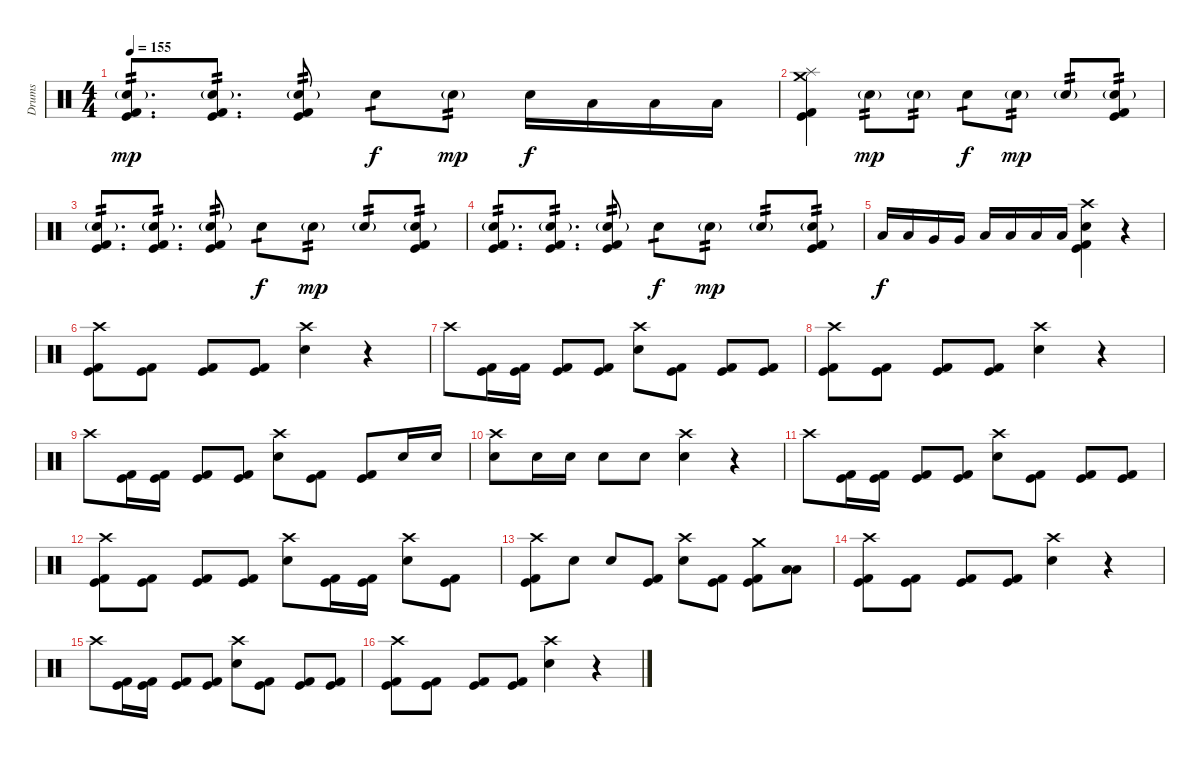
\track ("Drums" "Drums") {instrument percussion}
\staff {score}
\articulation defaults
\ts (4 4)
\tempo 155
\clef neutral
\ks c
("Electric Snare (hit)"{g} "Kick (hit)" "Kick (hit) 2").8{d tp 2 dy mp} ("Electric Snare (hit)"{g} "Kick (hit)" "Kick (hit) 2").8{d tp 2} ("Electric Snare (hit)"{g} "Kick (hit)" "Kick (hit) 2").8{tp 2} "Electric Snare (hit)".8{tp 1 dy f} "Electric Snare (hit)"{g}.8{tp 2 dy mp} "Electric Snare (hit)".16{dy f} "Low Tom (hit)".16 "Low Floor Tom (hit)".16 "Low Floor Tom (hit)".16 |
("Crash medium (hit)" "Splash (hit)" "Kick (hit)" "Kick (hit) 2").4 "Electric Snare (hit)"{g}.8{tp 2 dy mp} "Electric Snare (hit)"{g}.8{tp 2} "Electric Snare (hit)".8{tp 1 dy f} "Electric Snare (hit)"{g}.8{tp 2 dy mp} "Electric Snare (hit)"{g}.8{tp 2} ("Electric Snare (hit)"{g} "Kick (hit)" "Kick (hit) 2").8{tp 2} |
("Electric Snare (hit)"{g} "Kick (hit)" "Kick (hit) 2").8{d tp 2} ("Electric Snare (hit)"{g} "Kick (hit)" "Kick (hit) 2").8{d tp 2} ("Electric Snare (hit)"{g} "Kick (hit)" "Kick (hit) 2").8{tp 2} "Electric Snare (hit)".8{tp 1 dy f} "Electric Snare (hit)"{g}.8{tp 2 dy mp} "Electric Snare (hit)"{g}.8{tp 2} ("Electric Snare (hit)"{g} "Kick (hit)" "Kick (hit) 2").8{tp 2} |
("Electric Snare (hit)"{g} "Kick (hit)" "Kick (hit) 2").8{d tp 2} ("Electric Snare (hit)"{g} "Kick (hit)" "Kick (hit) 2").8{d tp 2} ("Electric Snare (hit)"{g} "Kick (hit)" "Kick (hit) 2").8{tp 2} "Electric Snare (hit)".8{tp 1 dy f} "Electric Snare (hit)"{g}.8{tp 2 dy mp} "Electric Snare (hit)"{g}.8{tp 2} ("Electric Snare (hit)"{g} "Kick (hit)" "Kick (hit) 2").8{tp 2} |
"Low Tom (hit)".16{dy f} "Low Tom (hit)".16 "Very Low Tom (hit)".16 "Very Low Tom (hit)".16 "Low Floor Tom (hit)".16 "Low Floor Tom (hit)".16 "Low Tom (hit)".16 "Low Tom (hit)".16 ("Crash high (hit)" "Electric Snare (hit)" "Kick (hit)" "Kick (hit) 2").4 r.4 |
("Crash high (hit)" "Kick (hit)" "Kick (hit) 2").8 ("Kick (hit)" "Kick (hit) 2").8 ("Kick (hit)" "Kick (hit) 2").8 ("Kick (hit)" "Kick (hit) 2").8 ("Crash high (hit)" "Electric Snare (hit)").4 r.4 |
"Crash high (hit)".8 ("Kick (hit)" "Kick (hit) 2").16 ("Kick (hit)" "Kick (hit) 2").16 ("Kick (hit)" "Kick (hit) 2").8 ("Kick (hit)" "Kick (hit) 2").8 ("Crash high (hit)" "Electric Snare (hit)").8 ("Kick (hit)" "Kick (hit) 2").8 ("Kick (hit)" "Kick (hit) 2").8 ("Kick (hit)" "Kick (hit) 2").8 |
("Crash high (hit)" "Kick (hit)" "Kick (hit) 2").8 ("Kick (hit)" "Kick (hit) 2").8 ("Kick (hit)" "Kick (hit) 2").8 ("Kick (hit)" "Kick (hit) 2").8 ("Crash high (hit)" "Electric Snare (hit)").4 r.4 |
"Crash high (hit)".8 ("Kick (hit)" "Kick (hit) 2").16 ("Kick (hit)" "Kick (hit) 2").16 ("Kick (hit)" "Kick (hit) 2").8 ("Kick (hit)" "Kick (hit) 2").8 ("Crash high (hit)" "Electric Snare (hit)").8 ("Kick (hit)" "Kick (hit) 2").8 ("Kick (hit)" "Kick (hit) 2").8 "Electric Snare (hit)".16 "Electric Snare (hit)".16 |
("Crash high (hit)" "Electric Snare (hit)").8 "Electric Snare (hit)".16 "Electric Snare (hit)".16 "Electric Snare (hit)".8 "Electric Snare (hit)".8 ("Crash high (hit)" "Electric Snare (hit)").4 r.4 |
"Crash high (hit)".8 ("Kick (hit)" "Kick (hit) 2").16 ("Kick (hit)" "Kick (hit) 2").16 ("Kick (hit)" "Kick (hit) 2").8 ("Kick (hit)" "Kick (hit) 2").8 ("Crash high (hit)" "Electric Snare (hit)").8 ("Kick (hit)" "Kick (hit) 2").8 ("Kick (hit)" "Kick (hit) 2").8 ("Kick (hit)" "Kick (hit) 2").8 |
("Crash high (hit)" "Kick (hit)" "Kick (hit) 2").8 ("Kick (hit)" "Kick (hit) 2").8 ("Kick (hit)" "Kick (hit) 2").8 ("Kick (hit)" "Kick (hit) 2").8 ("Crash high (hit)" "Electric Snare (hit)").8 ("Kick (hit)" "Kick (hit) 2").16 ("Kick (hit)" "Kick (hit) 2").16 ("Crash high (hit)" "Electric Snare (hit)").8 ("Kick (hit)" "Kick (hit) 2").8 |
("Crash high (hit)" "Kick (hit)" "Kick (hit) 2").8 "Electric Snare (hit)".8 "Electric Snare (hit)".8 ("Kick (hit)" "Kick (hit) 2").8 ("Crash high (hit)" "Electric Snare (hit)").8 ("Kick (hit)" "Kick (hit) 2").8 ("Crash medium (hit)" "Kick (hit)" "Kick (hit) 2").8 ("Low Floor Tom (hit)" "Low Tom (hit)").8 |
("Crash high (hit)" "Kick (hit)" "Kick (hit) 2").8 ("Kick (hit)" "Kick (hit) 2").8 ("Kick (hit)" "Kick (hit) 2").8 ("Kick (hit)" "Kick (hit) 2").8 ("Crash high (hit)" "Electric Snare (hit)").4 r.4 |
"Crash high (hit)".8 ("Kick (hit)" "Kick (hit) 2").16 ("Kick (hit)" "Kick (hit) 2").16 ("Kick (hit)" "Kick (hit) 2").8 ("Kick (hit)" "Kick (hit) 2").8 ("Crash high (hit)" "Electric Snare (hit)").8 ("Kick (hit)" "Kick (hit) 2").8 ("Kick (hit)" "Kick (hit) 2").8 ("Kick (hit)" "Kick (hit) 2").8 |
("Crash high (hit)" "Kick (hit)" "Kick (hit) 2").8 ("Kick (hit)" "Kick (hit) 2").8 ("Kick (hit)" "Kick (hit) 2").8 ("Kick (hit)" "Kick (hit) 2").8 ("Crash high (hit)" "Electric Snare (hit)").4 r.4
